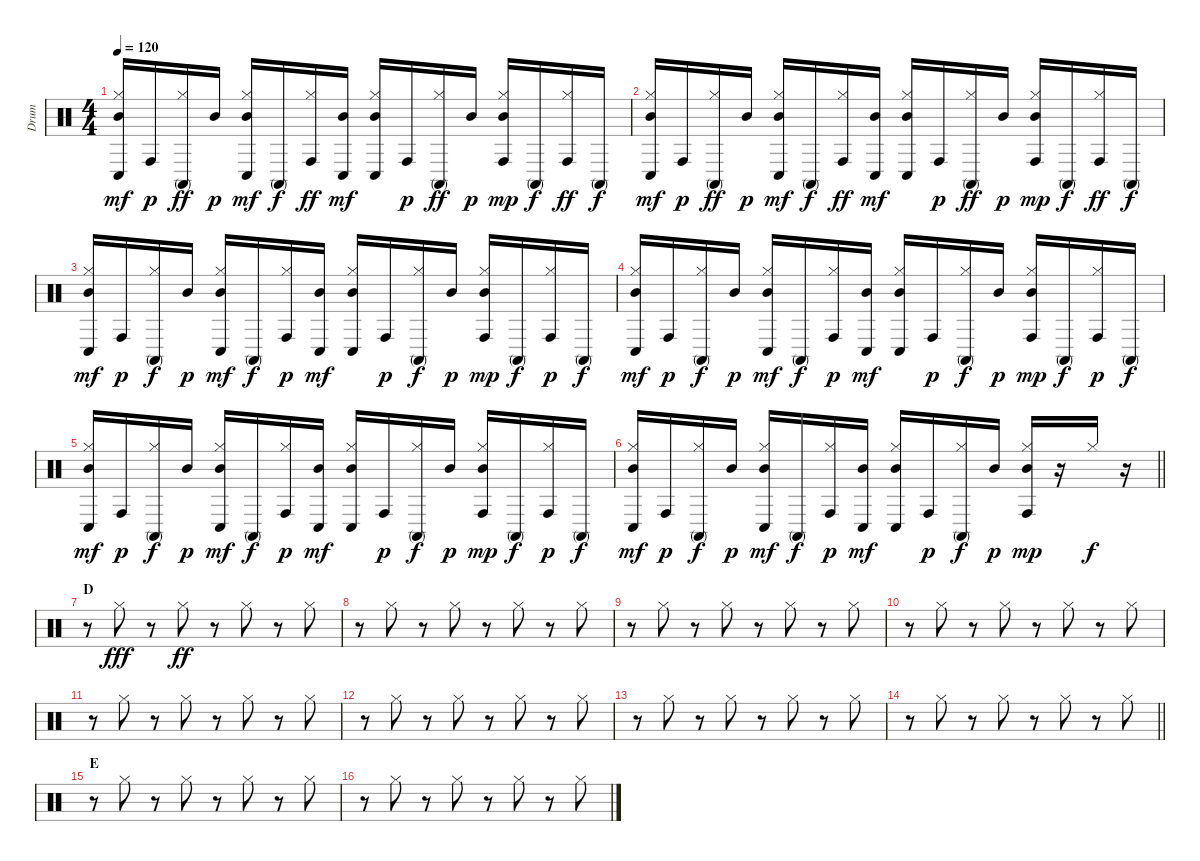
\track ("Drum" "Drum") {instrument percussion}
\staff {score}
\articulation defaults
\ts (4 4)
\tempo 120
\clef neutral
\ks c
("Mid Tom (hit)" "Hi-Hat (closed)" "Conga low (hit)").16{dy mf} "Conga high (hit)".16{dy p} ("Hi-Hat (closed)" "Conga high (mute)").16{dy ff} "Mid Tom (hit)".16{dy p} ("Mid Tom (hit)" "Hi-Hat (closed)" "Conga low (hit)").16{dy mf} "Conga high (mute)".16{dy f} ("Conga high (hit)" "Hi-Hat (closed)").16{dy ff} ("Mid Tom (hit)" "Conga low (hit)").16{dy mf} ("Mid Tom (hit)" "Hi-Hat (closed)" "Conga low (hit)").16 "Conga high (hit)".16{dy p} ("Hi-Hat (closed)" "Conga high (mute)").16{dy ff} "Mid Tom (hit)".16{dy p} ("Mid Tom (hit)" "Hi-Hat (closed)" "Conga high (hit)").16{dy mp} "Conga high (mute)".16{dy f} ("Conga high (hit)" "Hi-Hat (closed)").16{dy ff} "Conga high (mute)".16{dy f} |
("Mid Tom (hit)" "Hi-Hat (closed)" "Conga low (hit)").16{dy mf} "Conga high (hit)".16{dy p} ("Hi-Hat (closed)" "Conga high (mute)").16{dy ff} "Mid Tom (hit)".16{dy p} ("Mid Tom (hit)" "Hi-Hat (closed)" "Conga low (hit)").16{dy mf} "Conga high (mute)".16{dy f} ("Conga high (hit)" "Hi-Hat (closed)").16{dy ff} ("Mid Tom (hit)" "Conga low (hit)").16{dy mf} ("Mid Tom (hit)" "Hi-Hat (closed)" "Conga low (hit)").16 "Conga high (hit)".16{dy p} ("Hi-Hat (closed)" "Conga high (mute)").16{dy ff} "Mid Tom (hit)".16{dy p} ("Mid Tom (hit)" "Hi-Hat (closed)" "Conga high (hit)").16{dy mp} "Conga high (mute)".16{dy f} ("Conga high (hit)" "Hi-Hat (closed)").16{dy ff} "Conga high (mute)".16{dy f} |
("Mid Tom (hit)" "Hi-Hat (closed)" "Conga low (hit)").16{dy mf} "Conga high (hit)".16{dy p} ("Hi-Hat (closed)" "Conga high (mute)").16{dy f} "Mid Tom (hit)".16{dy p} ("Mid Tom (hit)" "Hi-Hat (closed)" "Conga low (hit)").16{dy mf} "Conga high (mute)".16{dy f} ("Conga high (hit)" "Hi-Hat (closed)").16{dy p} ("Mid Tom (hit)" "Conga low (hit)").16{dy mf} ("Mid Tom (hit)" "Hi-Hat (closed)" "Conga low (hit)").16 "Conga high (hit)".16{dy p} ("Hi-Hat (closed)" "Conga high (mute)").16{dy f} "Mid Tom (hit)".16{dy p} ("Mid Tom (hit)" "Hi-Hat (closed)" "Conga high (hit)").16{dy mp} "Conga high (mute)".16{dy f} ("Conga high (hit)" "Hi-Hat (closed)").16{dy p} "Conga high (mute)".16{dy f} |
("Mid Tom (hit)" "Hi-Hat (closed)" "Conga low (hit)").16{dy mf} "Conga high (hit)".16{dy p} ("Hi-Hat (closed)" "Conga high (mute)").16{dy f} "Mid Tom (hit)".16{dy p} ("Mid Tom (hit)" "Hi-Hat (closed)" "Conga low (hit)").16{dy mf} "Conga high (mute)".16{dy f} ("Conga high (hit)" "Hi-Hat (closed)").16{dy p} ("Mid Tom (hit)" "Conga low (hit)").16{dy mf} ("Mid Tom (hit)" "Hi-Hat (closed)" "Conga low (hit)").16 "Conga high (hit)".16{dy p} ("Hi-Hat (closed)" "Conga high (mute)").16{dy f} "Mid Tom (hit)".16{dy p} ("Mid Tom (hit)" "Hi-Hat (closed)" "Conga high (hit)").16{dy mp} "Conga high (mute)".16{dy f} ("Conga high (hit)" "Hi-Hat (closed)").16{dy p} "Conga high (mute)".16{dy f} |
("Mid Tom (hit)" "Hi-Hat (closed)" "Conga low (hit)").16{dy mf} "Conga high (hit)".16{dy p} ("Hi-Hat (closed)" "Conga high (mute)").16{dy f} "Mid Tom (hit)".16{dy p} ("Mid Tom (hit)" "Hi-Hat (closed)" "Conga low (hit)").16{dy mf} "Conga high (mute)".16{dy f} ("Conga high (hit)" "Hi-Hat (closed)").16{dy p} ("Mid Tom (hit)" "Conga low (hit)").16{dy mf} ("Mid Tom (hit)" "Hi-Hat (closed)" "Conga low (hit)").16 "Conga high (hit)".16{dy p} ("Hi-Hat (closed)" "Conga high (mute)").16{dy f} "Mid Tom (hit)".16{dy p} ("Mid Tom (hit)" "Hi-Hat (closed)" "Conga high (hit)").16{dy mp} "Conga high (mute)".16{dy f} ("Conga high (hit)" "Hi-Hat (closed)").16{dy p} "Conga high (mute)".16{dy f} |
\barLineRight lightlight
("Mid Tom (hit)" "Hi-Hat (closed)" "Conga low (hit)").16{dy mf} "Conga high (hit)".16{dy p} ("Hi-Hat (closed)" "Conga high (mute)").16{dy f} "Mid Tom (hit)".16{dy p} ("Mid Tom (hit)" "Hi-Hat (closed)" "Conga low (hit)").16{dy mf} "Conga high (mute)".16{dy f} ("Conga high (hit)" "Hi-Hat (closed)").16{dy p} ("Mid Tom (hit)" "Conga low (hit)").16{dy mf} ("Mid Tom (hit)" "Hi-Hat (closed)" "Conga low (hit)").16 "Conga high (hit)".16{dy p} ("Hi-Hat (closed)" "Conga high (mute)").16{dy f} "Mid Tom (hit)".16{dy p} ("Mid Tom (hit)" "Hi-Hat (closed)" "Conga high (hit)").16{dy mp} r.16 "Hi-Hat (closed)".16{dy f} r.16 |
\section ("" "D")
r.8 "Hi-Hat (closed)".8{dy fff} r.8 "Hi-Hat (closed)".8{dy ff} r.8 "Hi-Hat (closed)".8 r.8 "Hi-Hat (closed)".8 |
r.8 "Hi-Hat (closed)".8 r.8 "Hi-Hat (closed)".8 r.8 "Hi-Hat (closed)".8 r.8 "Hi-Hat (closed)".8 |
r.8 "Hi-Hat (closed)".8 r.8 "Hi-Hat (closed)".8 r.8 "Hi-Hat (closed)".8 r.8 "Hi-Hat (closed)".8 |
r.8 "Hi-Hat (closed)".8 r.8 "Hi-Hat (closed)".8 r.8 "Hi-Hat (closed)".8 r.8 "Hi-Hat (closed)".8 |
r.8 "Hi-Hat (closed)".8 r.8 "Hi-Hat (closed)".8 r.8 "Hi-Hat (closed)".8 r.8 "Hi-Hat (closed)".8 |
r.8 "Hi-Hat (closed)".8 r.8 "Hi-Hat (closed)".8 r.8 "Hi-Hat (closed)".8 r.8 "Hi-Hat (closed)".8 |
r.8 "Hi-Hat (closed)".8 r.8 "Hi-Hat (closed)".8 r.8 "Hi-Hat (closed)".8 r.8 "Hi-Hat (closed)".8 |
\barLineRight lightlight
r.8 "Hi-Hat (closed)".8 r.8 "Hi-Hat (closed)".8 r.8 "Hi-Hat (closed)".8 r.8 "Hi-Hat (closed)".8 |
\section ("" "E")
r.8 "Hi-Hat (closed)".8 r.8 "Hi-Hat (closed)".8 r.8 "Hi-Hat (closed)".8 r.8 "Hi-Hat (closed)".8 |
r.8 "Hi-Hat (closed)".8 r.8 "Hi-Hat (closed)".8 r.8 "Hi-Hat (closed)".8 r.8 "Hi-Hat (closed)".8
